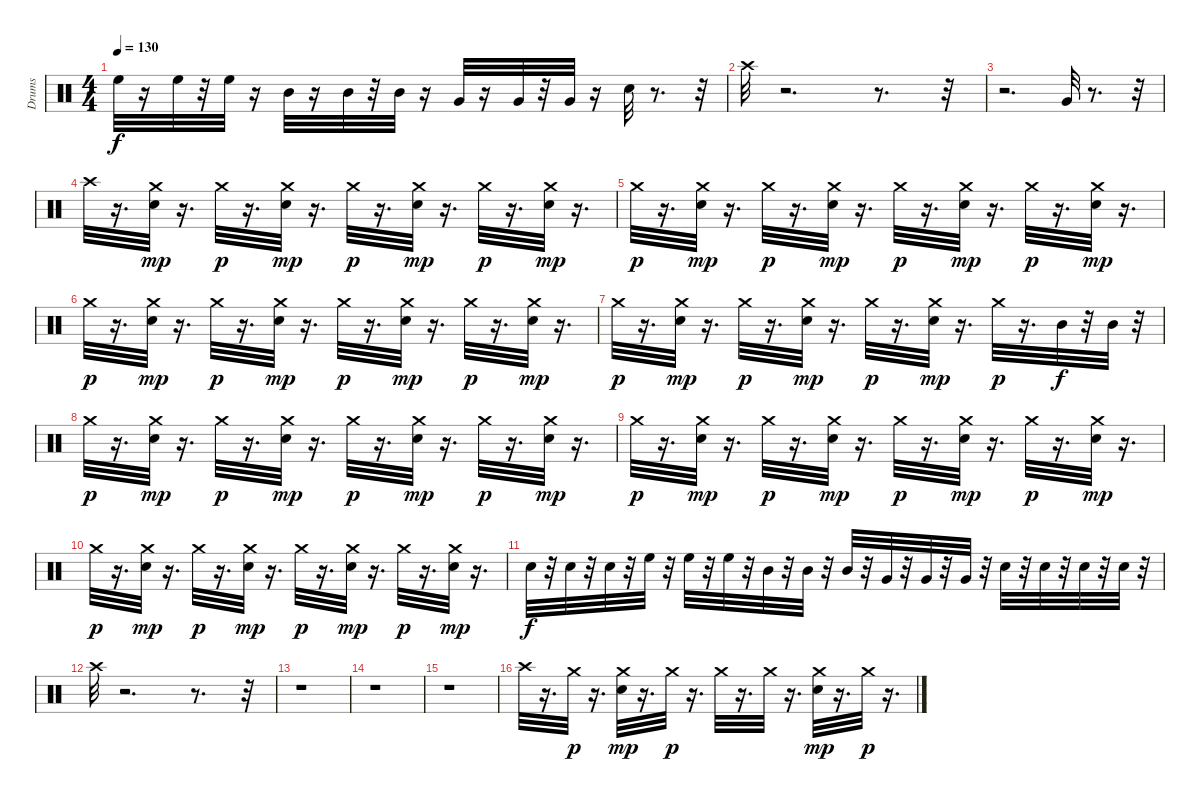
\track ("Drums" "Drums") {instrument percussion}
\staff {score}
\articulation defaults
\ts (4 4)
\tempo 130
\clef neutral
\ks c "High Floor Tom (hit)".32{dy f}
r.16 "High Floor Tom (hit)".32 r.32 "High Floor Tom (hit)".32 r.16 "Mid Tom (hit)".32 r.16 "Mid Tom (hit)".32 r.32 "Mid Tom (hit)".32 r.16 "Very Low Tom (hit)".32 r.16 "Very Low Tom (hit)".32 r.32 "Very Low Tom (hit)".32 r.16 "Snare (hit)".32 r.8{d} r.32 |
"Crash high (hit)".32 r.2{d} r.8{d} r.32 |
r.2{d} "Very Low Tom (hit)".32 r.8{d} r.32 |
"Crash high (hit)".32 r.16{d} ("Snare (hit) 2" "Crash medium (hit)").32{dy mp} r.16{d} "Crash medium (hit)".32{dy p} r.16{d} ("Snare (hit) 2" "Crash medium (hit)").32{dy mp} r.16{d} "Crash medium (hit)".32{dy p} r.16{d} ("Snare (hit) 2" "Crash medium (hit)").32{dy mp} r.16{d} "Crash medium (hit)".32{dy p} r.16{d} ("Snare (hit) 2" "Crash medium (hit)").32{dy mp} r.16{d} |
"Crash medium (hit)".32{dy p} r.16{d} ("Snare (hit) 2" "Crash medium (hit)").32{dy mp} r.16{d} "Crash medium (hit)".32{dy p} r.16{d} ("Snare (hit) 2" "Crash medium (hit)").32{dy mp} r.16{d} "Crash medium (hit)".32{dy p} r.16{d} ("Snare (hit) 2" "Crash medium (hit)").32{dy mp} r.16{d} "Crash medium (hit)".32{dy p} r.16{d} ("Snare (hit) 2" "Crash medium (hit)").32{dy mp} r.16{d} |
"Crash medium (hit)".32{dy p} r.16{d} ("Snare (hit) 2" "Crash medium (hit)").32{dy mp} r.16{d} "Crash medium (hit)".32{dy p} r.16{d} ("Snare (hit) 2" "Crash medium (hit)").32{dy mp} r.16{d} "Crash medium (hit)".32{dy p} r.16{d} ("Snare (hit) 2" "Crash medium (hit)").32{dy mp} r.16{d} "Crash medium (hit)".32{dy p} r.16{d} ("Snare (hit) 2" "Crash medium (hit)").32{dy mp} r.16{d} |
"Crash medium (hit)".32{dy p} r.16{d} ("Snare (hit) 2" "Crash medium (hit)").32{dy mp} r.16{d} "Crash medium (hit)".32{dy p} r.16{d} ("Snare (hit) 2" "Crash medium (hit)").32{dy mp} r.16{d} "Crash medium (hit)".32{dy p} r.16{d} ("Snare (hit) 2" "Crash medium (hit)").32{dy mp} r.16{d} "Crash medium (hit)".32{dy p} r.16{d} "Mid Tom (hit)".32{dy f} r.32 "Mid Tom (hit)".32 r.32 |
"Crash medium (hit)".32{dy p} r.16{d} ("Snare (hit) 2" "Crash medium (hit)").32{dy mp} r.16{d} "Crash medium (hit)".32{dy p} r.16{d} ("Snare (hit) 2" "Crash medium (hit)").32{dy mp} r.16{d} "Crash medium (hit)".32{dy p} r.16{d} ("Snare (hit) 2" "Crash medium (hit)").32{dy mp} r.16{d} "Crash medium (hit)".32{dy p} r.16{d} ("Snare (hit) 2" "Crash medium (hit)").32{dy mp} r.16{d} |
"Crash medium (hit)".32{dy p} r.16{d} ("Snare (hit) 2" "Crash medium (hit)").32{dy mp} r.16{d} "Crash medium (hit)".32{dy p} r.16{d} ("Snare (hit) 2" "Crash medium (hit)").32{dy mp} r.16{d} "Crash medium (hit)".32{dy p} r.16{d} ("Snare (hit) 2" "Crash medium (hit)").32{dy mp} r.16{d} "Crash medium (hit)".32{dy p} r.16{d} ("Snare (hit) 2" "Crash medium (hit)").32{dy mp} r.16{d} |
"Crash medium (hit)".32{dy p} r.16{d} ("Snare (hit) 2" "Crash medium (hit)").32{dy mp} r.16{d} "Crash medium (hit)".32{dy p} r.16{d} ("Snare (hit) 2" "Crash medium (hit)").32{dy mp} r.16{d} "Crash medium (hit)".32{dy p} r.16{d} ("Snare (hit) 2" "Crash medium (hit)").32{dy mp} r.16{d} "Crash medium (hit)".32{dy p} r.16{d} ("Snare (hit) 2" "Crash medium (hit)").32{dy mp} r.16{d} |
"Snare (hit) 2".32{dy f} r.32 "Snare (hit) 2".32 r.32 "Snare (hit) 2".32 r.32 "High Floor Tom (hit)".32 r.32 "High Floor Tom (hit)".32 r.32 "High Floor Tom (hit)".32 r.32 "Mid Tom (hit)".32 r.32 "Mid Tom (hit)".32 r.32 "Mid Tom (hit)".32 r.32 "Very Low Tom (hit)".32 r.32 "Very Low Tom (hit)".32 r.32 "Very Low Tom (hit)".32 r.32 "Snare (hit)".32 r.32 "Snare (hit)".32 r.32 "Snare (hit)".32 r.32 "Snare (hit)".32 r.32 |
"Crash high (hit)".32 r.2{d} r.8{d} r.32 |
r.1 |
r.1 |
r.1 |
"Crash high (hit)".32 r.16{d} "Crash medium (hit)".32{dy p} r.16{d} ("Snare (hit) 2" "Crash medium (hit)").32{dy mp} r.16{d} "Crash medium (hit)".32{dy p} r.16{d} "Crash medium (hit)".32 r.16{d} "Crash medium (hit)".32 r.16{d} ("Snare (hit) 2" "Crash medium (hit)").32{dy mp} r.16{d} "Crash medium (hit)".32{dy p} r.16{d}
